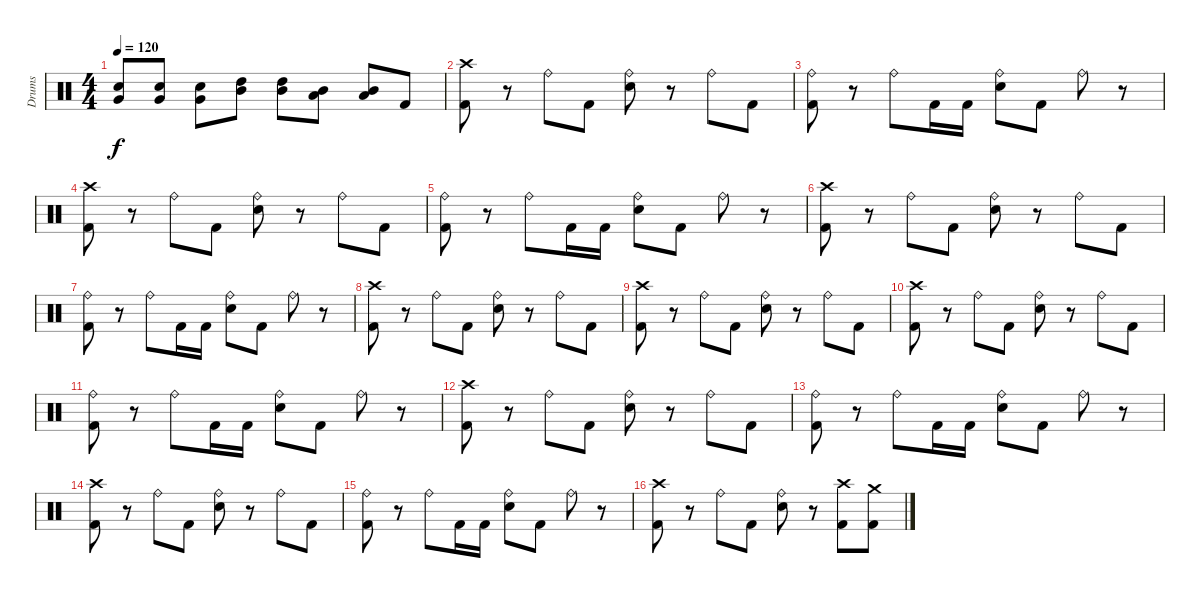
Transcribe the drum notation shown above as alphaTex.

\track ("Drums" "Drums") {instrument percussion}
\staff {score}
\articulation defaults
\ts (4 4)
\tempo 120
\clef neutral
\ks c
("Very Low Tom (hit)" "Electric Snare (hit)").8{dy f} ("Very Low Tom (hit)" "Electric Snare (hit)").8 ("Very Low Tom (hit)" "Electric Snare (hit)").8 ("Mid Tom (hit)" "High Tom (hit)").8 ("Mid Tom (hit)" "High Tom (hit)").8 ("Low Tom (hit)" "Mid Tom (hit)").8 ("Low Tom (hit)" "Mid Tom (hit)").8 "Kick (hit) 2".8 |
("Crash high (hit)" "Kick (hit) 2").8 r.8 "Ride (bell)".8 "Kick (hit) 2".8 ("Ride (bell)" "Electric Snare (hit)").8 r.8 "Ride (bell)".8 "Kick (hit) 2".8 |
("Ride (bell)" "Kick (hit) 2").8 r.8 "Ride (bell)".8 "Kick (hit) 2".16 "Kick (hit) 2".16 ("Ride (bell)" "Electric Snare (hit)").8 "Kick (hit) 2".8 "Ride (bell)".8 r.8 |
("Crash high (hit)" "Kick (hit) 2").8 r.8 "Ride (bell)".8 "Kick (hit) 2".8 ("Ride (bell)" "Electric Snare (hit)").8 r.8 "Ride (bell)".8 "Kick (hit) 2".8 |
("Ride (bell)" "Kick (hit) 2").8 r.8 "Ride (bell)".8 "Kick (hit) 2".16 "Kick (hit) 2".16 ("Ride (bell)" "Electric Snare (hit)").8 "Kick (hit) 2".8 "Ride (bell)".8 r.8 |
("Crash high (hit)" "Kick (hit) 2").8 r.8 "Ride (bell)".8 "Kick (hit) 2".8 ("Ride (bell)" "Electric Snare (hit)").8 r.8 "Ride (bell)".8 "Kick (hit) 2".8 |
("Ride (bell)" "Kick (hit) 2").8 r.8 "Ride (bell)".8 "Kick (hit) 2".16 "Kick (hit) 2".16 ("Ride (bell)" "Electric Snare (hit)").8 "Kick (hit) 2".8 "Ride (bell)".8 r.8 |
("Crash high (hit)" "Kick (hit) 2").8 r.8 "Ride (bell)".8 "Kick (hit) 2".8 ("Ride (bell)" "Electric Snare (hit)").8 r.8 "Ride (bell)".8 "Kick (hit) 2".8 |
("Crash high (hit)" "Kick (hit) 2").8 r.8 "Ride (bell)".8 "Kick (hit) 2".8 ("Ride (bell)" "Electric Snare (hit)").8 r.8 "Ride (bell)".8 "Kick (hit) 2".8 |
("Crash high (hit)" "Kick (hit) 2").8 r.8 "Ride (bell)".8 "Kick (hit) 2".8 ("Ride (bell)" "Electric Snare (hit)").8 r.8 "Ride (bell)".8 "Kick (hit) 2".8 |
("Ride (bell)" "Kick (hit) 2").8 r.8 "Ride (bell)".8 "Kick (hit) 2".16 "Kick (hit) 2".16 ("Ride (bell)" "Electric Snare (hit)").8 "Kick (hit) 2".8 "Ride (bell)".8 r.8 |
("Crash high (hit)" "Kick (hit) 2").8 r.8 "Ride (bell)".8 "Kick (hit) 2".8 ("Ride (bell)" "Electric Snare (hit)").8 r.8 "Ride (bell)".8 "Kick (hit) 2".8 |
("Ride (bell)" "Kick (hit) 2").8 r.8 "Ride (bell)".8 "Kick (hit) 2".16 "Kick (hit) 2".16 ("Ride (bell)" "Electric Snare (hit)").8 "Kick (hit) 2".8 "Ride (bell)".8 r.8 |
("Crash high (hit)" "Kick (hit) 2").8 r.8 "Ride (bell)".8 "Kick (hit) 2".8 ("Ride (bell)" "Electric Snare (hit)").8 r.8 "Ride (bell)".8 "Kick (hit) 2".8 |
("Ride (bell)" "Kick (hit) 2").8 r.8 "Ride (bell)".8 "Kick (hit) 2".16 "Kick (hit) 2".16 ("Ride (bell)" "Electric Snare (hit)").8 "Kick (hit) 2".8 "Ride (bell)".8 r.8 |
("Crash high (hit)" "Kick (hit) 2").8 r.8 "Ride (bell)".8 "Kick (hit) 2".8 ("Ride (bell)" "Electric Snare (hit)").8 r.8 ("Crash high (hit)" "Kick (hit) 2").8 ("Crash medium (hit)" "Kick (hit) 2").8
